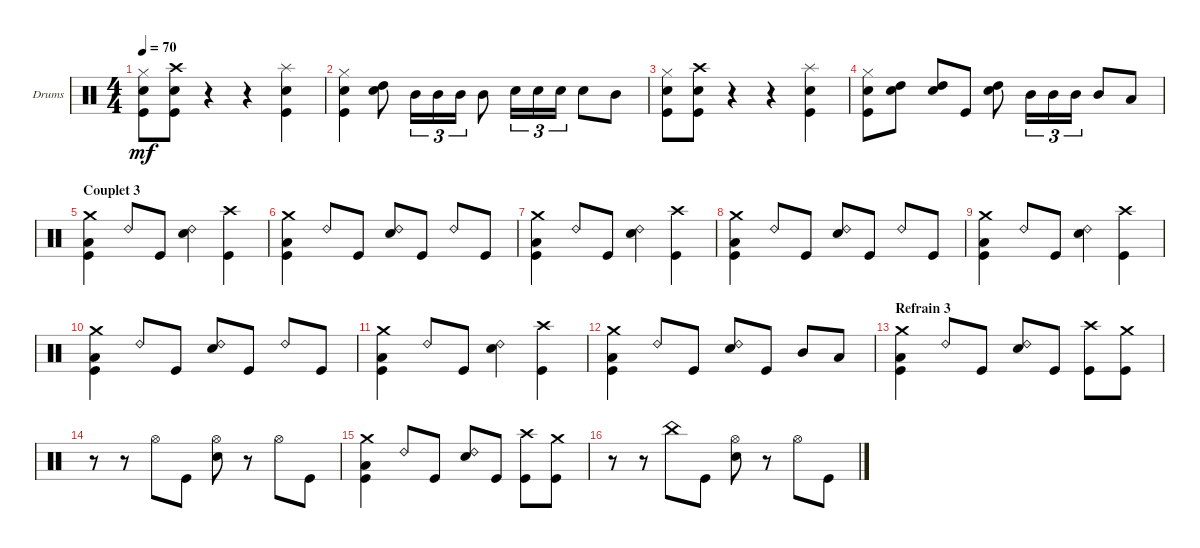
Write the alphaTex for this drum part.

\bracketExtendMode groupsimilarinstruments
\firstSystemTrackNameOrientation horizontal
\otherSystemsTrackNameOrientation horizontal
\track ("Drumkit" "Drums") {instrument percussion}
\staff {score}
\articulation defaults
\ts (4 4)
\scale
0.255319
\tempo 70
\accidentals auto
\clef neutral
\ottava regular
\simile none
\scale
0.25
\ks c
("Kick (hit)" "Snare (hit) 2" "Hi-Hat (closed)").8{dy mf} ("Kick (hit)" "Snare (hit) 2" "Crash high (hit)").8 r.4 r.4 ("Kick (hit)" "Splash (hit)" "Snare (hit) 2").4 |
\scale
0.401216
\scale
0.25 ("Kick (hit)" "Snare (hit) 2" "Hi-Hat (closed)").4 ("Snare (hit) 2" "High Tom (hit)").8 "Mid Tom (hit)".16{tu (3 2)} "Mid Tom (hit)".16{tu (3 2)} "Mid Tom (hit)".16{tu (3 2)} "Mid Tom (hit)".8 "Snare (hit) 2".16{tu (3 2)} "Snare (hit) 2".16{tu (3 2)} "Snare (hit) 2".16{tu (3 2)} "Snare (hit) 2".8 "Mid Tom (hit)".8 |
\scale
0.255319
\scale
0.25 ("Kick (hit)" "Snare (hit) 2" "Hi-Hat (closed)").8 ("Kick (hit)" "Snare (hit) 2" "Crash high (hit)").8 r.4 r.4 ("Kick (hit)" "Splash (hit)" "Snare (hit) 2").4 |
\scale
0.25 ("Kick (hit)" "Snare (hit) 2" "Hi-Hat (closed)").8 ("Snare (hit) 2" "High Tom (hit)").8 ("Snare (hit) 2" "High Tom (hit)").8 "Kick (hit)".8 ("Snare (hit) 2" "High Tom (hit)").8 "Mid Tom (hit)".16{tu (3 2)} "Mid Tom (hit)".16{tu (3 2)} "Mid Tom (hit)".16{tu (3 2)} "Mid Tom (hit)".8 "Low Tom (hit)".8 |
\section ("" "Couplet 3")
\scale
0.25 ("Crash medium (hit)" "Kick (hit)" "Low Tom (hit)").4 "Ride (bell) 2".8 "Kick (hit)".8 ("Snare (hit) 2" "Ride (bell) 2").4 ("Crash high (hit)" "Kick (hit)").4 |
\scale
0.25 ("Crash medium (hit)" "Kick (hit)" "Low Tom (hit)").4 "Ride (bell) 2".8 "Kick (hit)".8 ("Snare (hit) 2" "Ride (bell) 2").8 "Kick (hit)".8 "Ride (bell) 2".8 "Kick (hit)".8 |
\scale
0.25 ("Crash medium (hit)" "Kick (hit)" "Low Tom (hit)").4 "Ride (bell) 2".8 "Kick (hit)".8 ("Snare (hit) 2" "Ride (bell) 2").4 ("Crash high (hit)" "Kick (hit)").4 |
\scale
0.25 ("Crash medium (hit)" "Kick (hit)" "Low Tom (hit)").4 "Ride (bell) 2".8 "Kick (hit)".8 ("Snare (hit) 2" "Ride (bell) 2").8 "Kick (hit)".8 "Ride (bell) 2".8 "Kick (hit)".8 |
\scale
0.25 ("Crash medium (hit)" "Kick (hit)" "Low Tom (hit)").4 "Ride (bell) 2".8 "Kick (hit)".8 ("Snare (hit) 2" "Ride (bell) 2").4 ("Crash high (hit)" "Kick (hit)").4 |
\scale
0.25 ("Crash medium (hit)" "Kick (hit)" "Low Tom (hit)").4 "Ride (bell) 2".8 "Kick (hit)".8 ("Snare (hit) 2" "Ride (bell) 2").8 "Kick (hit)".8 "Ride (bell) 2".8 "Kick (hit)".8 |
\scale
0.25 ("Crash medium (hit)" "Kick (hit)" "Low Tom (hit)").4 "Ride (bell) 2".8 "Kick (hit)".8 ("Snare (hit) 2" "Ride (bell) 2").4 ("Crash high (hit)" "Kick (hit)").4 |
\scale
0.25 ("Crash medium (hit)" "Kick (hit)" "Low Tom (hit)").4 "Ride (bell) 2".8 "Kick (hit)".8 ("Ride (bell) 2" "Snare (hit) 2").8 "Kick (hit)".8 "Mid Tom (hit)".8 "Low Tom (hit)".8 |
\section ("" "Refrain 3")
\scale
0.25 ("Crash medium (hit)" "Kick (hit)" "Low Tom (hit)").4 "Ride (bell) 2".8 "Kick (hit)".8 ("Snare (hit) 2" "Ride (bell) 2").8 "Kick (hit)".8 ("Kick (hit)" "Crash high (hit)").8 ("Kick (hit)" "Crash medium (hit)").8 |
\scale
0.25 r.8 r.8 "Hi-Hat (open)".8 "Kick (hit)".8 ("Hi-Hat (open)" "Snare (hit) 2").8 r.8 "Hi-Hat (open)".8 "Kick (hit)".8 |
\scale
0.25 ("Crash medium (hit)" "Kick (hit)" "Low Tom (hit)").4 "Ride (bell) 2".8 "Kick (hit)".8 ("Snare (hit) 2" "Ride (bell) 2").8 "Kick (hit)".8 ("Kick (hit)" "Crash high (hit)").8 ("Kick (hit)" "Crash medium (hit)").8 |
\scale
0.25 r.8 r.8 "China (hit)".8 "Kick (hit)".8 ("Hi-Hat (open)" "Snare (hit) 2").8 r.8 "Hi-Hat (open)".8 "Kick (hit)".8
